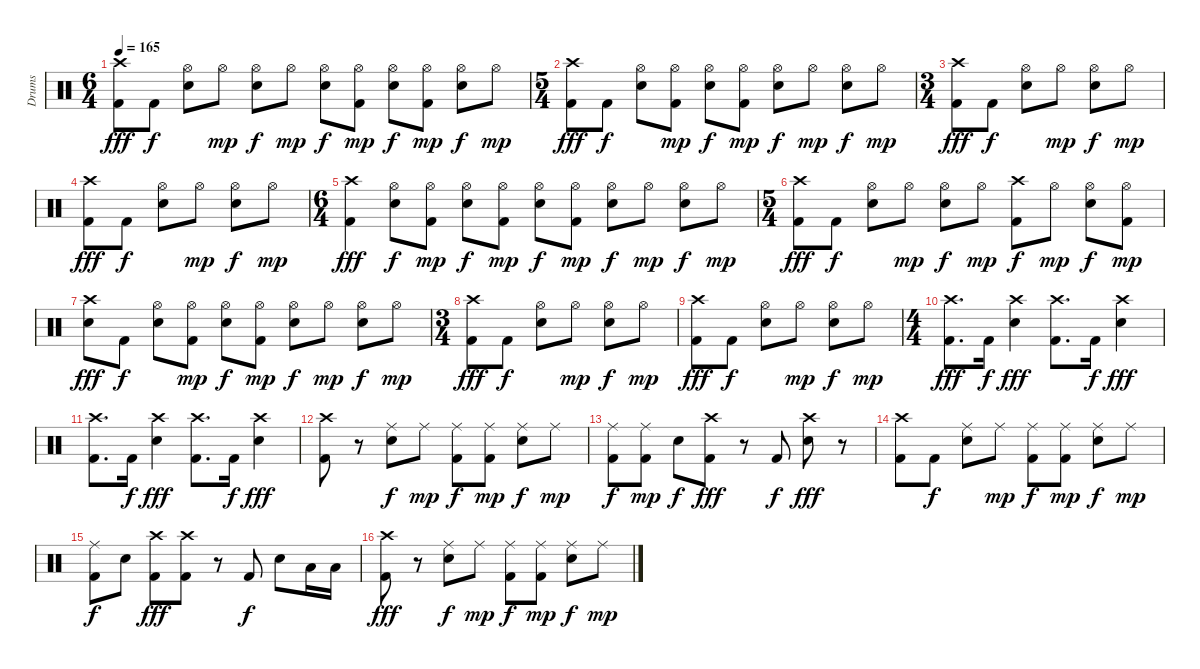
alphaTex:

\track ("Drums" "Drums") {instrument percussion}
\staff {score}
\articulation defaults
\ts (6 4)
\tempo 165
\clef neutral
\ks c
("Crash high (hit)" "Kick (hit) 2").8{dy fff} "Kick (hit) 2".8{dy f} ("Hi-Hat (open)" "Electric Snare (hit)").8 "Hi-Hat (open)".8{dy mp} ("Hi-Hat (open)" "Electric Snare (hit)").8{dy f} "Hi-Hat (open)".8{dy mp} ("Hi-Hat (open)" "Electric Snare (hit)").8{dy f} ("Hi-Hat (open)" "Kick (hit) 2").8{dy mp} ("Hi-Hat (open)" "Electric Snare (hit)").8{dy f} ("Hi-Hat (open)" "Kick (hit) 2").8{dy mp} ("Hi-Hat (open)" "Electric Snare (hit)").8{dy f} "Hi-Hat (open)".8{dy mp} |
\ts (5 4)
("Crash high (hit)" "Kick (hit) 2").8{dy fff} "Kick (hit) 2".8{dy f} ("Hi-Hat (open)" "Electric Snare (hit)").8 ("Hi-Hat (open)" "Kick (hit) 2").8{dy mp} ("Hi-Hat (open)" "Electric Snare (hit)").8{dy f} ("Hi-Hat (open)" "Kick (hit) 2").8{dy mp} ("Hi-Hat (open)" "Electric Snare (hit)").8{dy f} "Hi-Hat (open)".8{dy mp} ("Hi-Hat (open)" "Electric Snare (hit)").8{dy f} "Hi-Hat (open)".8{dy mp} |
\ts (3 4)
("Crash high (hit)" "Kick (hit) 2").8{dy fff} "Kick (hit) 2".8{dy f} ("Hi-Hat (open)" "Electric Snare (hit)").8 "Hi-Hat (open)".8{dy mp} ("Hi-Hat (open)" "Electric Snare (hit)").8{dy f} "Hi-Hat (open)".8{dy mp} |
("Crash high (hit)" "Kick (hit) 2").8{dy fff} "Kick (hit) 2".8{dy f} ("Hi-Hat (open)" "Electric Snare (hit)").8 "Hi-Hat (open)".8{dy mp} ("Hi-Hat (open)" "Electric Snare (hit)").8{dy f} "Hi-Hat (open)".8{dy mp} |
\ts (6 4)
("Crash high (hit)" "Kick (hit) 2").4{dy fff} ("Hi-Hat (open)" "Electric Snare (hit)").8{dy f} ("Hi-Hat (open)" "Kick (hit) 2").8{dy mp} ("Hi-Hat (open)" "Electric Snare (hit)").8{dy f} ("Hi-Hat (open)" "Kick (hit) 2").8{dy mp} ("Hi-Hat (open)" "Electric Snare (hit)").8{dy f} ("Hi-Hat (open)" "Kick (hit) 2").8{dy mp} ("Hi-Hat (open)" "Electric Snare (hit)").8{dy f} "Hi-Hat (open)".8{dy mp} ("Hi-Hat (open)" "Electric Snare (hit)").8{dy f} "Hi-Hat (open)".8{dy mp} |
\ts (5 4)
("Crash high (hit)" "Kick (hit) 2").8{dy fff} "Kick (hit) 2".8{dy f} ("Hi-Hat (open)" "Electric Snare (hit)").8 "Hi-Hat (open)".8{dy mp} ("Hi-Hat (open)" "Electric Snare (hit)").8{dy f} "Hi-Hat (open)".8{dy mp} ("Crash high (hit)" "Kick (hit) 2").8{dy f} "Hi-Hat (open)".8{dy mp} ("Hi-Hat (open)" "Electric Snare (hit)").8{dy f} ("Hi-Hat (open)" "Kick (hit) 2").8{dy mp} |
("Crash high (hit)" "Electric Snare (hit)").8{dy fff} "Kick (hit) 2".8{dy f} ("Hi-Hat (open)" "Electric Snare (hit)").8 ("Hi-Hat (open)" "Kick (hit) 2").8{dy mp} ("Hi-Hat (open)" "Electric Snare (hit)").8{dy f} ("Hi-Hat (open)" "Kick (hit) 2").8{dy mp} ("Hi-Hat (open)" "Electric Snare (hit)").8{dy f} "Hi-Hat (open)".8{dy mp} ("Hi-Hat (open)" "Electric Snare (hit)").8{dy f} "Hi-Hat (open)".8{dy mp} |
\ts (3 4)
("Crash high (hit)" "Kick (hit) 2").8{dy fff} "Kick (hit) 2".8{dy f} ("Hi-Hat (open)" "Electric Snare (hit)").8 "Hi-Hat (open)".8{dy mp} ("Hi-Hat (open)" "Electric Snare (hit)").8{dy f} "Hi-Hat (open)".8{dy mp} |
("Crash high (hit)" "Kick (hit) 2").8{dy fff} "Kick (hit) 2".8{dy f} ("Hi-Hat (open)" "Electric Snare (hit)").8 "Hi-Hat (open)".8{dy mp} ("Hi-Hat (open)" "Electric Snare (hit)").8{dy f} "Hi-Hat (open)".8{dy mp} |
\ts (4 4)
("Crash high (hit)" "Kick (hit) 2").8{d dy fff} "Kick (hit) 2".16{dy f} ("Crash high (hit)" "Electric Snare (hit)").4{dy fff} ("Crash high (hit)" "Kick (hit) 2").8{d} "Kick (hit) 2".16{dy f} ("Crash high (hit)" "Electric Snare (hit)").4{dy fff} |
("Crash high (hit)" "Kick (hit) 2").8{d} "Kick (hit) 2".16{dy f} ("Crash high (hit)" "Electric Snare (hit)").4{dy fff} ("Crash high (hit)" "Kick (hit) 2").8{d} "Kick (hit) 2".16{dy f} ("Crash high (hit)" "Electric Snare (hit)").4{dy fff} |
("Crash high (hit)" "Kick (hit) 2").8 r.8 ("Ride (middle)" "Electric Snare (hit)").8{dy f} "Ride (middle)".8{dy mp} ("Ride (middle)" "Kick (hit) 2").8{dy f} ("Ride (middle)" "Kick (hit) 2").8{dy mp} ("Ride (middle)" "Electric Snare (hit)").8{dy f} "Ride (middle)".8{dy mp} |
("Ride (middle)" "Kick (hit) 2").8{dy f} ("Ride (middle)" "Kick (hit) 2").8{dy mp} "Electric Snare (hit)".8{dy f} ("Crash high (hit)" "Kick (hit) 2").8{dy fff} r.8 "Kick (hit) 2".8{dy f} ("Crash high (hit)" "Electric Snare (hit)").8{dy fff} r.8 |
("Crash high (hit)" "Kick (hit) 2").8 "Kick (hit) 2".8{dy f} ("Ride (middle)" "Electric Snare (hit)").8 "Ride (middle)".8{dy mp} ("Ride (middle)" "Kick (hit) 2").8{dy f} ("Ride (middle)" "Kick (hit) 2").8{dy mp} ("Ride (middle)" "Electric Snare (hit)").8{dy f} "Ride (middle)".8{dy mp} |
("Ride (middle)" "Kick (hit) 2").8{dy f} "Electric Snare (hit)".8 ("Crash high (hit)" "Kick (hit) 2").8{dy fff} ("Crash high (hit)" "Kick (hit) 2").8 r.8 "Kick (hit) 2".8{dy f} "Electric Snare (hit)".8 "Low Tom (hit)".16 "Low Tom (hit)".16 |
("Crash high (hit)" "Kick (hit) 2").8{dy fff} r.8 ("Ride (middle)" "Electric Snare (hit)").8{dy f} "Ride (middle)".8{dy mp} ("Ride (middle)" "Kick (hit) 2").8{dy f} ("Ride (middle)" "Kick (hit) 2").8{dy mp} ("Ride (middle)" "Electric Snare (hit)").8{dy f} "Ride (middle)".8{dy mp}
